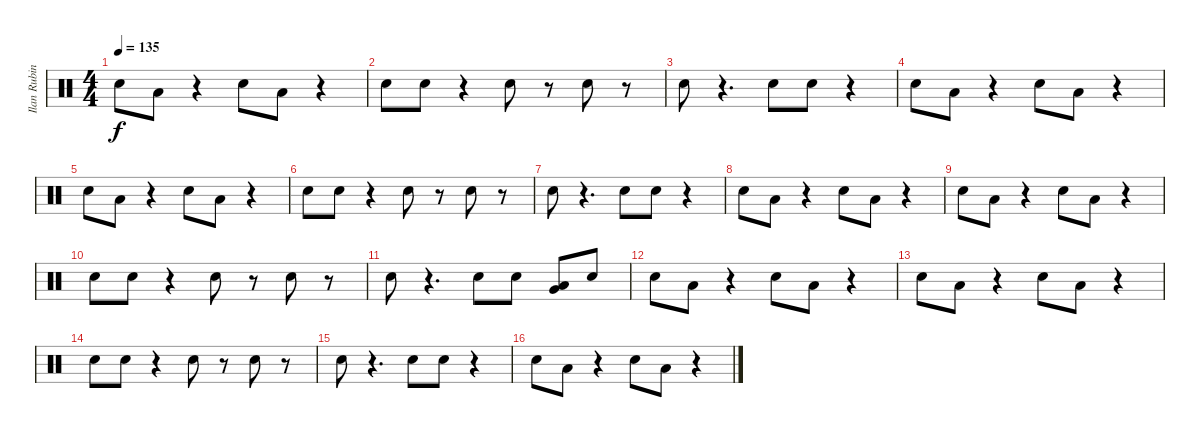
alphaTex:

\track ("Ilan Rubin" "Ilan Rubin") {instrument percussion}
\staff {score}
\articulation defaults
\ts (4 4)
\tempo 135
\clef neutral
\ks c "Electric Snare (hit)".8{dy f} "Low Tom (hit)".8
r.4 "Electric Snare (hit)".8 "Low Tom (hit)".8 r.4 |
"Electric Snare (hit)".8 "Electric Snare (hit)".8 r.4 "Electric Snare (hit)".8 r.8 "Electric Snare (hit)".8 r.8 |
"Electric Snare (hit)".8 r.4{d} "Electric Snare (hit)".8 "Electric Snare (hit)".8 r.4 |
"Electric Snare (hit)".8 "Low Tom (hit)".8 r.4 "Electric Snare (hit)".8 "Low Tom (hit)".8 r.4 |
"Electric Snare (hit)".8 "Low Tom (hit)".8 r.4 "Electric Snare (hit)".8 "Low Tom (hit)".8 r.4 |
"Electric Snare (hit)".8 "Electric Snare (hit)".8 r.4 "Electric Snare (hit)".8 r.8 "Electric Snare (hit)".8 r.8 |
"Electric Snare (hit)".8 r.4{d} "Electric Snare (hit)".8 "Electric Snare (hit)".8 r.4 |
"Electric Snare (hit)".8 "Low Tom (hit)".8 r.4 "Electric Snare (hit)".8 "Low Tom (hit)".8 r.4 |
"Electric Snare (hit)".8 "Low Tom (hit)".8 r.4 "Electric Snare (hit)".8 "Low Tom (hit)".8 r.4 |
"Electric Snare (hit)".8 "Electric Snare (hit)".8 r.4 "Electric Snare (hit)".8 r.8 "Electric Snare (hit)".8 r.8 |
"Electric Snare (hit)".8 r.4{d} "Electric Snare (hit)".8 "Electric Snare (hit)".8 ("Low Tom (hit)" "Very Low Tom (hit)").8 "Electric Snare (hit)".8 |
"Electric Snare (hit)".8 "Low Tom (hit)".8 r.4 "Electric Snare (hit)".8 "Low Tom (hit)".8 r.4 |
"Electric Snare (hit)".8 "Low Tom (hit)".8 r.4 "Electric Snare (hit)".8 "Low Tom (hit)".8 r.4 |
"Electric Snare (hit)".8 "Electric Snare (hit)".8 r.4 "Electric Snare (hit)".8 r.8 "Electric Snare (hit)".8 r.8 |
"Electric Snare (hit)".8 r.4{d} "Electric Snare (hit)".8 "Electric Snare (hit)".8 r.4 |
"Electric Snare (hit)".8 "Low Tom (hit)".8 r.4 "Electric Snare (hit)".8 "Low Tom (hit)".8 r.4
